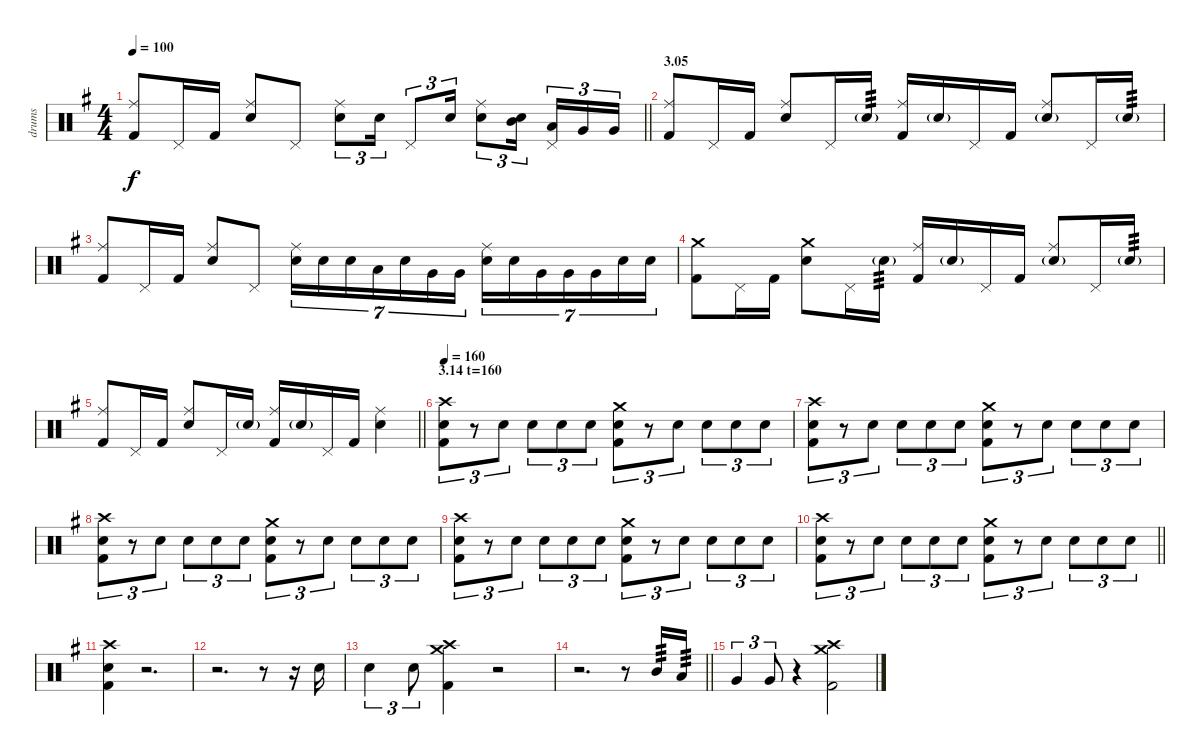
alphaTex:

\track ("drums" "drums") {instrument percussion}
\staff {score}
\articulation defaults
\ts (4 4)
\tempo 100
\clef neutral
\barLineRight lightlight
\ks g
("Ride (middle)" "Kick (hit) 2").8{dy f} "Pedal Hi-Hat (hit)".16 "Kick (hit) 2".16 ("Ride (middle)" "Electric Snare (hit)").8 "Pedal Hi-Hat (hit)".8 ("Ride (middle)" "Electric Snare (hit)").8{tu (3 2)} "Electric Snare (hit)".16{tu (3 2)} "Pedal Hi-Hat (hit)".8{tu (3 2)} "Electric Snare (hit)".16{tu (3 2)} ("Ride (middle)" "Electric Snare (hit)").8{tu (3 2)} ("Mid Tom (hit)" "Electric Snare (hit)").16{tu (3 2) beam splitsecondary} ("Pedal Hi-Hat (hit)" "Low Tom (hit)").16{tu (3 2)} "Very Low Tom (hit)".16{tu (3 2)} "Very Low Tom (hit)".16{tu (3 2)} |
\section ("" "3.05")
("Ride (middle)" "Kick (hit) 2").8 "Pedal Hi-Hat (hit)".16 "Kick (hit) 2".16 ("Ride (middle)" "Electric Snare (hit)").8 "Pedal Hi-Hat (hit)".16 "Electric Snare (hit)"{g}.16{tp 3} ("Ride (middle)" "Kick (hit) 2").16 "Electric Snare (hit)"{g}.16 "Pedal Hi-Hat (hit)".16 "Kick (hit) 2".16 ("Ride (middle)" "Electric Snare (hit)"{g}).8 "Pedal Hi-Hat (hit)".16 "Electric Snare (hit)"{g}.16{tp 3} |
("Ride (middle)" "Kick (hit) 2").8 "Pedal Hi-Hat (hit)".16 "Kick (hit) 2".16 ("Ride (middle)" "Electric Snare (hit)").8 "Pedal Hi-Hat (hit)".8 ("Ride (middle)" "Electric Snare (hit)").16{tu (7 4)} "Electric Snare (hit)".16{tu (7 4)} "Electric Snare (hit)".16{tu (7 4)} "Low Tom (hit)".16{tu (7 4)} "Electric Snare (hit)".16{tu (7 4)} "Very Low Tom (hit)".16{tu (7 4)} "Very Low Tom (hit)".16{tu (7 4)} ("Ride (middle)" "Electric Snare (hit)").16{tu (7 4)} "Electric Snare (hit)".16{tu (7 4)} "Very Low Tom (hit)".16{tu (7 4)} "Very Low Tom (hit)".16{tu (7 4)} "Very Low Tom (hit)".16{tu (7 4)} "Electric Snare (hit)".16{tu (7 4)} "Electric Snare (hit)".16{tu (7 4)} |
("Crash medium (hit)" "Kick (hit) 2").8 "Pedal Hi-Hat (hit)".16 "Kick (hit) 2".16 ("Crash medium (hit)" "Electric Snare (hit)").8 "Pedal Hi-Hat (hit)".16 "Electric Snare (hit)"{g}.16{tp 3} ("Ride (middle)" "Kick (hit) 2").16 "Electric Snare (hit)"{g}.16 "Pedal Hi-Hat (hit)".16 "Kick (hit) 2".16 ("Ride (middle)" "Electric Snare (hit)"{g}).8 "Pedal Hi-Hat (hit)".16 "Electric Snare (hit)"{g}.16{tp 3} |
\barLineRight lightlight
("Ride (middle)" "Kick (hit) 2").8 "Pedal Hi-Hat (hit)".16 "Kick (hit) 2".16 ("Ride (middle)" "Electric Snare (hit)").8 "Pedal Hi-Hat (hit)".16 "Electric Snare (hit)"{g}.16 ("Ride (middle)" "Kick (hit) 2").16 "Electric Snare (hit)"{g}.16 "Pedal Hi-Hat (hit)".16 "Kick (hit) 2".16 ("Ride (middle)" "Electric Snare (hit)").4 |
\section ("" "3.14 t=160")
\tempo 160
("Crash high (hit)" "Electric Snare (hit)" "Kick (hit) 2").8{tu (3 2)} r.8{tu (3 2)} "Electric Snare (hit)".8{tu (3 2)} "Electric Snare (hit)".8{tu (3 2)} "Electric Snare (hit)".8{tu (3 2)} "Electric Snare (hit)".8{tu (3 2)} ("Crash medium (hit)" "Electric Snare (hit)" "Kick (hit) 2").8{tu (3 2)} r.8{tu (3 2)} "Electric Snare (hit)".8{tu (3 2)} "Electric Snare (hit)".8{tu (3 2)} "Electric Snare (hit)".8{tu (3 2)} "Electric Snare (hit)".8{tu (3 2)} |
("Crash high (hit)" "Electric Snare (hit)" "Kick (hit) 2").8{tu (3 2)} r.8{tu (3 2)} "Electric Snare (hit)".8{tu (3 2)} "Electric Snare (hit)".8{tu (3 2)} "Electric Snare (hit)".8{tu (3 2)} "Electric Snare (hit)".8{tu (3 2)} ("Crash medium (hit)" "Electric Snare (hit)" "Kick (hit) 2").8{tu (3 2)} r.8{tu (3 2)} "Electric Snare (hit)".8{tu (3 2)} "Electric Snare (hit)".8{tu (3 2)} "Electric Snare (hit)".8{tu (3 2)} "Electric Snare (hit)".8{tu (3 2)} |
("Crash high (hit)" "Electric Snare (hit)" "Kick (hit) 2").8{tu (3 2)} r.8{tu (3 2)} "Electric Snare (hit)".8{tu (3 2)} "Electric Snare (hit)".8{tu (3 2)} "Electric Snare (hit)".8{tu (3 2)} "Electric Snare (hit)".8{tu (3 2)} ("Crash medium (hit)" "Electric Snare (hit)" "Kick (hit) 2").8{tu (3 2)} r.8{tu (3 2)} "Electric Snare (hit)".8{tu (3 2)} "Electric Snare (hit)".8{tu (3 2)} "Electric Snare (hit)".8{tu (3 2)} "Electric Snare (hit)".8{tu (3 2)} |
("Crash high (hit)" "Electric Snare (hit)" "Kick (hit) 2").8{tu (3 2)} r.8{tu (3 2)} "Electric Snare (hit)".8{tu (3 2)} "Electric Snare (hit)".8{tu (3 2)} "Electric Snare (hit)".8{tu (3 2)} "Electric Snare (hit)".8{tu (3 2)} ("Crash medium (hit)" "Electric Snare (hit)" "Kick (hit) 2").8{tu (3 2)} r.8{tu (3 2)} "Electric Snare (hit)".8{tu (3 2)} "Electric Snare (hit)".8{tu (3 2)} "Electric Snare (hit)".8{tu (3 2)} "Electric Snare (hit)".8{tu (3 2)} |
\barLineRight lightlight
("Crash high (hit)" "Electric Snare (hit)" "Kick (hit) 2").8{tu (3 2)} r.8{tu (3 2)} "Electric Snare (hit)".8{tu (3 2)} "Electric Snare (hit)".8{tu (3 2)} "Electric Snare (hit)".8{tu (3 2)} "Electric Snare (hit)".8{tu (3 2)} ("Crash medium (hit)" "Electric Snare (hit)" "Kick (hit) 2").8{tu (3 2)} r.8{tu (3 2)} "Electric Snare (hit)".8{tu (3 2)} "Electric Snare (hit)".8{tu (3 2)} "Electric Snare (hit)".8{tu (3 2)} "Electric Snare (hit)".8{tu (3 2)} |
("Crash high (hit)" "Electric Snare (hit)" "Kick (hit) 2").4 r.2{d} |
r.2{d} r.8 r.16 "Electric Snare (hit)".16 |
"Electric Snare (hit)".4{tu (3 2)} "Electric Snare (hit)".8{tu (3 2)} ("Crash medium (hit)" "Crash high (hit)" "Kick (hit) 2").4 r.2 |
\barLineRight lightlight
r.2{d} r.8 "Mid Tom (hit)".16{tp 3} "Low Tom (hit)".16{tp 3} |
"Very Low Tom (hit)".4{tu (3 2)} "Very Low Tom (hit)".8{tu (3 2)} r.4 ("Crash medium (hit)" "Crash high (hit)" "Kick (hit) 2").2
